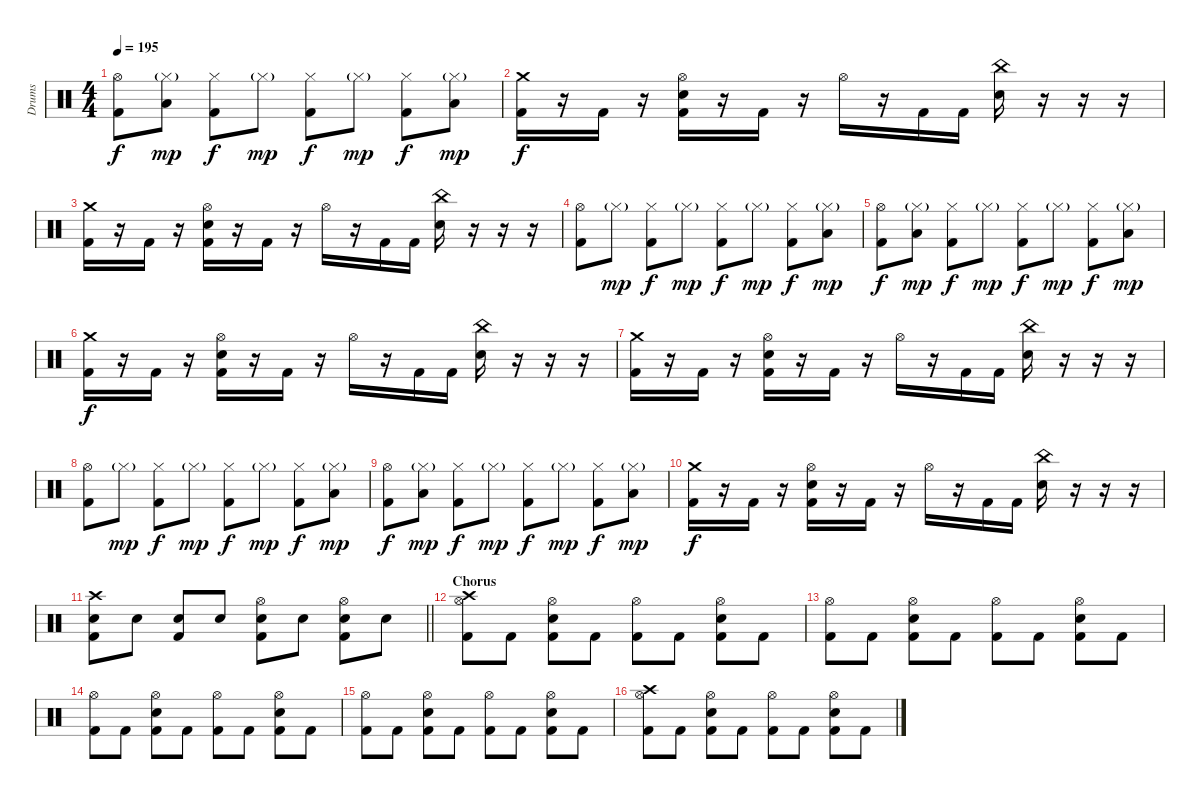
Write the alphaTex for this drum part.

\track ("Drums" "Drums") {instrument percussion}
\staff {score}
\articulation defaults
\ts (4 4)
\tempo 195
\clef neutral
\ks c
("Hi-Hat (open)" "Kick (hit) 2").8{dy f} ("Hi-Hat (closed)"{g} "Low Tom (hit)").8{dy mp} ("Hi-Hat (closed)" "Kick (hit) 2").8{dy f} "Hi-Hat (closed)"{g}.8{dy mp} ("Hi-Hat (closed)" "Kick (hit) 2").8{dy f} "Hi-Hat (closed)"{g}.8{dy mp} ("Hi-Hat (closed)" "Kick (hit) 2").8{dy f} ("Hi-Hat (closed)"{g} "Low Tom (hit)").8{dy mp} |
("Crash medium (hit)" "Kick (hit) 2").16{dy f} r.16 "Kick (hit) 2".16 r.16 ("Hi-Hat (open)" "Snare (hit) 2" "Kick (hit) 2").16 r.16 "Kick (hit) 2".16 r.16 "Hi-Hat (open)".16 r.16 "Kick (hit) 2".16 "Kick (hit) 2".16 ("China (hit)" "Snare (hit) 2").16 r.16 r.16 r.16 |
("Crash medium (hit)" "Kick (hit) 2").16 r.16 "Kick (hit) 2".16 r.16 ("Hi-Hat (open)" "Snare (hit) 2" "Kick (hit) 2").16 r.16 "Kick (hit) 2".16 r.16 "Hi-Hat (open)".16 r.16 "Kick (hit) 2".16 "Kick (hit) 2".16 ("China (hit)" "Snare (hit) 2").16 r.16 r.16 r.16 |
("Hi-Hat (open)" "Kick (hit) 2").8 "Hi-Hat (closed)"{g}.8{dy mp} ("Hi-Hat (closed)" "Kick (hit) 2").8{dy f} "Hi-Hat (closed)"{g}.8{dy mp} ("Hi-Hat (closed)" "Kick (hit) 2").8{dy f} "Hi-Hat (closed)"{g}.8{dy mp} ("Hi-Hat (closed)" "Kick (hit) 2").8{dy f} ("Hi-Hat (closed)"{g} "Low Tom (hit)").8{dy mp} |
("Hi-Hat (open)" "Kick (hit) 2").8{dy f} ("Hi-Hat (closed)"{g} "Low Tom (hit)").8{dy mp} ("Hi-Hat (closed)" "Kick (hit) 2").8{dy f} "Hi-Hat (closed)"{g}.8{dy mp} ("Hi-Hat (closed)" "Kick (hit) 2").8{dy f} "Hi-Hat (closed)"{g}.8{dy mp} ("Hi-Hat (closed)" "Kick (hit) 2").8{dy f} ("Hi-Hat (closed)"{g} "Low Tom (hit)").8{dy mp} |
("Crash medium (hit)" "Kick (hit) 2").16{dy f} r.16 "Kick (hit) 2".16 r.16 ("Hi-Hat (open)" "Snare (hit) 2" "Kick (hit) 2").16 r.16 "Kick (hit) 2".16 r.16 "Hi-Hat (open)".16 r.16 "Kick (hit) 2".16 "Kick (hit) 2".16 ("China (hit)" "Snare (hit) 2").16 r.16 r.16 r.16 |
("Crash medium (hit)" "Kick (hit) 2").16 r.16 "Kick (hit) 2".16 r.16 ("Hi-Hat (open)" "Snare (hit) 2" "Kick (hit) 2").16 r.16 "Kick (hit) 2".16 r.16 "Hi-Hat (open)".16 r.16 "Kick (hit) 2".16 "Kick (hit) 2".16 ("China (hit)" "Snare (hit) 2").16 r.16 r.16 r.16 |
("Hi-Hat (open)" "Kick (hit) 2").8 "Hi-Hat (closed)"{g}.8{dy mp} ("Hi-Hat (closed)" "Kick (hit) 2").8{dy f} "Hi-Hat (closed)"{g}.8{dy mp} ("Hi-Hat (closed)" "Kick (hit) 2").8{dy f} "Hi-Hat (closed)"{g}.8{dy mp} ("Hi-Hat (closed)" "Kick (hit) 2").8{dy f} ("Hi-Hat (closed)"{g} "Low Tom (hit)").8{dy mp} |
("Hi-Hat (open)" "Kick (hit) 2").8{dy f} ("Hi-Hat (closed)"{g} "Low Tom (hit)").8{dy mp} ("Hi-Hat (closed)" "Kick (hit) 2").8{dy f} "Hi-Hat (closed)"{g}.8{dy mp} ("Hi-Hat (closed)" "Kick (hit) 2").8{dy f} "Hi-Hat (closed)"{g}.8{dy mp} ("Hi-Hat (closed)" "Kick (hit) 2").8{dy f} ("Hi-Hat (closed)"{g} "Low Tom (hit)").8{dy mp} |
("Crash medium (hit)" "Kick (hit) 2").16{dy f} r.16 "Kick (hit) 2".16 r.16 ("Hi-Hat (open)" "Snare (hit) 2" "Kick (hit) 2").16 r.16 "Kick (hit) 2".16 r.16 "Hi-Hat (open)".16 r.16 "Kick (hit) 2".16 "Kick (hit) 2".16 ("China (hit)" "Snare (hit) 2").16 r.16 r.16 r.16 |
\barLineRight lightlight
("Crash high (hit)" "Snare (hit) 2" "Kick (hit) 2").8 "Snare (hit) 2".8 ("Snare (hit) 2" "Kick (hit) 2").8 "Snare (hit) 2".8 ("Hi-Hat (open)" "Snare (hit) 2" "Kick (hit) 2").8 "Snare (hit) 2".8 ("Hi-Hat (open)" "Snare (hit) 2" "Kick (hit) 2").8 "Snare (hit) 2".8 |
\section ("" "Chorus")
("Crash high (hit)" "Hi-Hat (open)" "Kick (hit) 2").8 "Kick (hit) 2".8 ("Hi-Hat (open)" "Snare (hit) 2" "Kick (hit) 2").8 "Kick (hit) 2".8 ("Hi-Hat (open)" "Kick (hit) 2").8 "Kick (hit) 2".8 ("Hi-Hat (open)" "Snare (hit) 2" "Kick (hit) 2").8 "Kick (hit) 2".8 |
("Hi-Hat (open)" "Kick (hit) 2").8 "Kick (hit) 2".8 ("Hi-Hat (open)" "Snare (hit) 2" "Kick (hit) 2").8 "Kick (hit) 2".8 ("Hi-Hat (open)" "Kick (hit) 2").8 "Kick (hit) 2".8 ("Hi-Hat (open)" "Snare (hit) 2" "Kick (hit) 2").8 "Kick (hit) 2".8 |
("Hi-Hat (open)" "Kick (hit) 2").8 "Kick (hit) 2".8 ("Hi-Hat (open)" "Snare (hit) 2" "Kick (hit) 2").8 "Kick (hit) 2".8 ("Hi-Hat (open)" "Kick (hit) 2").8 "Kick (hit) 2".8 ("Hi-Hat (open)" "Snare (hit) 2" "Kick (hit) 2").8 "Kick (hit) 2".8 |
("Hi-Hat (open)" "Kick (hit) 2").8 "Kick (hit) 2".8 ("Hi-Hat (open)" "Snare (hit) 2" "Kick (hit) 2").8 "Kick (hit) 2".8 ("Hi-Hat (open)" "Kick (hit) 2").8 "Kick (hit) 2".8 ("Hi-Hat (open)" "Snare (hit) 2" "Kick (hit) 2").8 "Kick (hit) 2".8 |
("Crash high (hit)" "Hi-Hat (open)" "Kick (hit) 2").8 "Kick (hit) 2".8 ("Hi-Hat (open)" "Snare (hit) 2" "Kick (hit) 2").8 "Kick (hit) 2".8 ("Hi-Hat (open)" "Kick (hit) 2").8 "Kick (hit) 2".8 ("Hi-Hat (open)" "Snare (hit) 2" "Kick (hit) 2").8 "Kick (hit) 2".8
